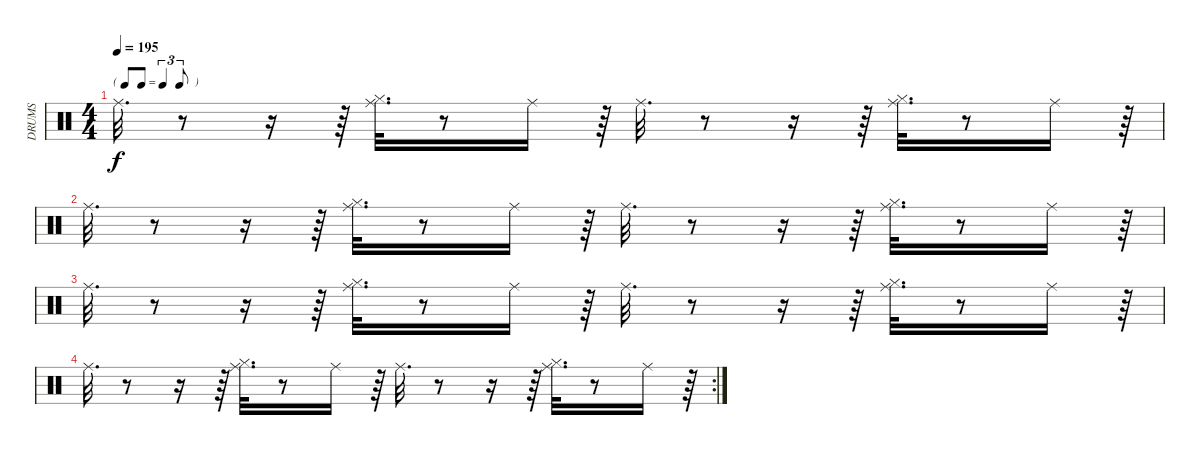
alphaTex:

\track ("DRUMS" "DRUMS") {instrument percussion}
\staff {score}
\articulation defaults
\ts (4 4)
\tf triplet8th
\tempo 195
\clef neutral
\ks c "Ride (middle)".32{d dy f}
r.8 r.16 r.64 ("Hi-Hat (closed)" "Ride (middle)").32{d} r.8 "Ride (middle)".16 r.64 "Ride (middle)".32{d} r.8 r.16 r.64 ("Hi-Hat (closed)" "Ride (middle)").32{d} r.8 "Ride (middle)".16 r.64 |
"Ride (middle)".32{d} r.8 r.16 r.64 ("Hi-Hat (closed)" "Ride (middle)").32{d} r.8 "Ride (middle)".16 r.64 "Ride (middle)".32{d} r.8 r.16 r.64 ("Hi-Hat (closed)" "Ride (middle)").32{d} r.8 "Ride (middle)".16 r.64 |
"Ride (middle)".32{d} r.8 r.16 r.64 ("Hi-Hat (closed)" "Ride (middle)").32{d} r.8 "Ride (middle)".16 r.64 "Ride (middle)".32{d} r.8 r.16 r.64 ("Hi-Hat (closed)" "Ride (middle)").32{d} r.8 "Ride (middle)".16 r.64 |
\rc 2 "Ride (middle)".32{d}
r.8 r.16 r.64 ("Hi-Hat (closed)" "Ride (middle)").32{d} r.8 "Ride (middle)".16 r.64 "Ride (middle)".32{d} r.8 r.16 r.64 ("Hi-Hat (closed)" "Ride (middle)").32{d} r.8 "Ride (middle)".16 r.64
